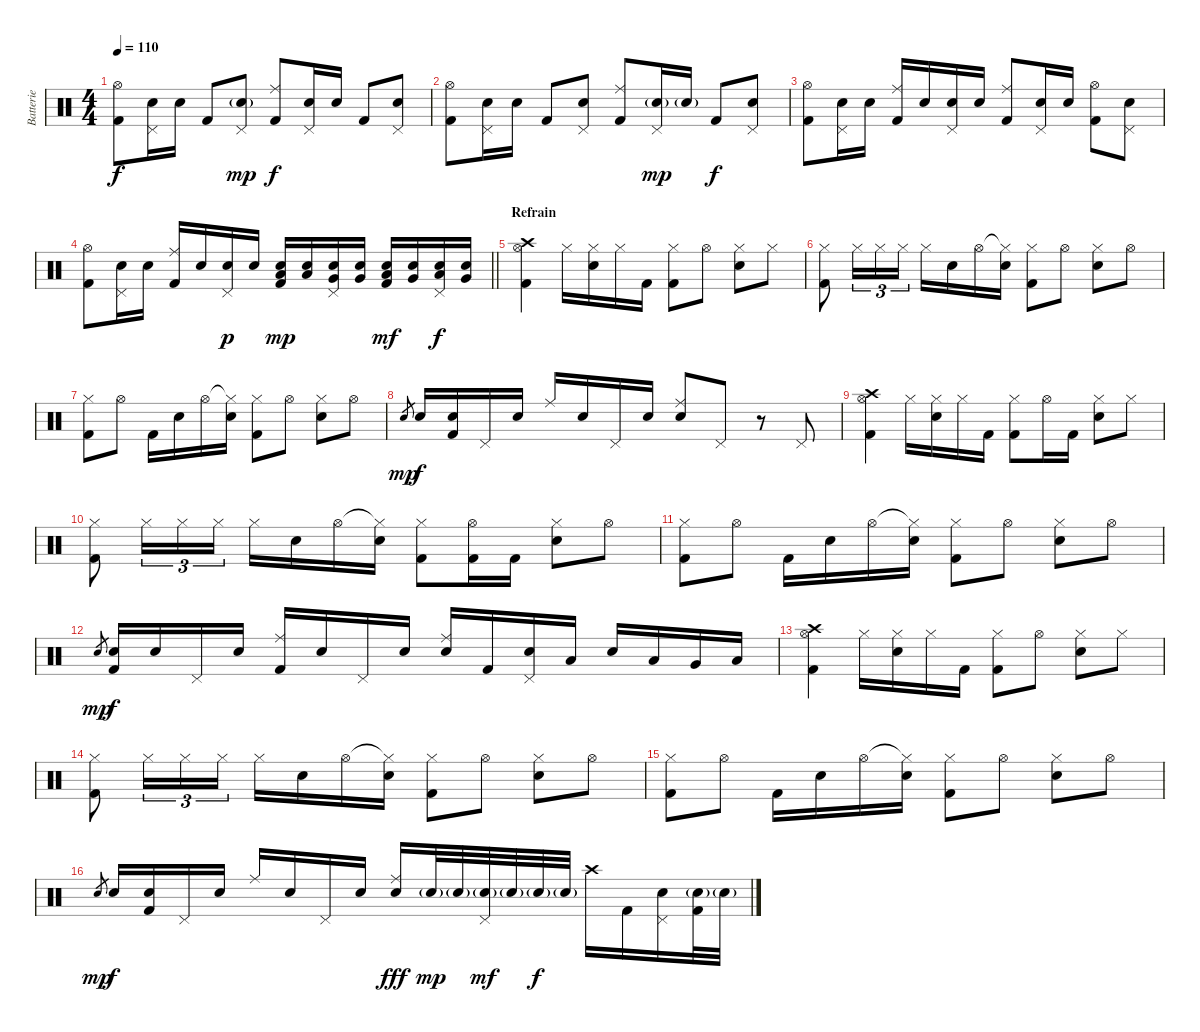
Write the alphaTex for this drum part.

\track ("Batterie" "Batterie") {instrument percussion}
\staff {score}
\articulation defaults
\ts (4 4)
\tempo 110
\clef neutral
\ks c
("Hi-Hat (open)" "Kick (hit) 2").8{dy f} ("Pedal Hi-Hat (hit)" "Snare (hit) 2").16 "Snare (hit) 2".16 "Kick (hit) 2".8 ("Pedal Hi-Hat (hit)" "Snare (hit) 2"{g}).8{dy mp} ("Ride (middle)" "Kick (hit) 2").8{dy f} ("Pedal Hi-Hat (hit)" "Snare (hit) 2").16 "Snare (hit) 2".16 "Kick (hit) 2".8 ("Pedal Hi-Hat (hit)" "Snare (hit) 2").8 |
("Hi-Hat (open)" "Kick (hit) 2").8 ("Pedal Hi-Hat (hit)" "Snare (hit) 2").16 "Snare (hit) 2".16 "Kick (hit) 2".8 ("Pedal Hi-Hat (hit)" "Snare (hit) 2").8 ("Ride (middle)" "Kick (hit) 2").8 ("Pedal Hi-Hat (hit)" "Snare (hit) 2"{g}).16{dy mp} "Snare (hit) 2"{g}.16 "Kick (hit) 2".8{dy f} ("Pedal Hi-Hat (hit)" "Snare (hit) 2").8 |
("Hi-Hat (open)" "Kick (hit) 2").8 ("Pedal Hi-Hat (hit)" "Snare (hit) 2").16 "Snare (hit) 2".16 ("Ride (middle)" "Kick (hit) 2").16 "Snare (hit) 2".16 ("Pedal Hi-Hat (hit)" "Snare (hit) 2").16 "Snare (hit) 2".16 ("Ride (middle)" "Kick (hit) 2").8 ("Pedal Hi-Hat (hit)" "Snare (hit) 2").16 "Snare (hit) 2".16 ("Hi-Hat (open)" "Kick (hit) 2").8 ("Pedal Hi-Hat (hit)" "Snare (hit) 2").8 |
\barLineRight lightlight
("Hi-Hat (open)" "Kick (hit) 2").8 ("Pedal Hi-Hat (hit)" "Snare (hit) 2").16 "Snare (hit) 2".16 ("Ride (middle)" "Kick (hit) 2").16 "Snare (hit) 2".16 ("Pedal Hi-Hat (hit)" "Snare (hit) 2").16{dy p} "Snare (hit) 2".16 ("Snare (hit) 2" "Low Tom (hit)" "Kick (hit) 2").16{dy mp} ("Snare (hit) 2" "Low Tom (hit)").16 ("Pedal Hi-Hat (hit)" "Snare (hit) 2" "Very Low Tom (hit)").16 ("Snare (hit) 2" "Very Low Tom (hit)").16 ("Snare (hit) 2" "Low Tom (hit)" "Kick (hit) 2").16{dy mf} ("Snare (hit) 2" "Very Low Tom (hit)").16 ("Pedal Hi-Hat (hit)" "Snare (hit) 2" "Low Tom (hit)").16{dy f} ("Snare (hit) 2" "Very Low Tom (hit)").16 |
\section ("" "Refrain")
("Crash high (hit)" "Hi-Hat (open)" "Kick (hit) 2").4 "Hi-Hat (closed)".16 ("Hi-Hat (closed)" "Snare (hit) 2").16 "Hi-Hat (closed)".16 "Kick (hit) 2".16 ("Hi-Hat (closed)" "Kick (hit) 2").8 "Hi-Hat (open)".8 ("Hi-Hat (closed)" "Snare (hit) 2").8 "Hi-Hat (closed)".8 |
("Hi-Hat (closed)" "Kick (hit) 2").8 "Hi-Hat (closed)".16{tu (3 2)} "Hi-Hat (closed)".16{tu (3 2)} "Hi-Hat (closed)".16{tu (3 2)} "Hi-Hat (closed)".16 "Snare (hit) 2".16 "Hi-Hat (open)".16 ("Hi-Hat (closed)"{t} "Snare (hit) 2").16 ("Hi-Hat (closed)" "Kick (hit) 2").8 "Hi-Hat (open)".8 ("Hi-Hat (closed)" "Snare (hit) 2").8 "Hi-Hat (open)".8 |
("Hi-Hat (closed)" "Kick (hit) 2").8 "Hi-Hat (open)".8 "Kick (hit) 2".16 "Snare (hit) 2".16 "Hi-Hat (open)".16 ("Hi-Hat (closed)"{t} "Snare (hit) 2").16 ("Hi-Hat (closed)" "Kick (hit) 2").8 "Hi-Hat (open)".8 ("Hi-Hat (closed)" "Snare (hit) 2").8 "Hi-Hat (open)".8 |
"Snare (hit) 2".8{gr dy mp} "Snare (hit) 2".16{dy f} ("Snare (hit) 2" "Kick (hit) 2").16 "Pedal Hi-Hat (hit)".16 "Snare (hit) 2".16 "Ride (middle)".16 "Snare (hit) 2".16 "Pedal Hi-Hat (hit)".16 "Snare (hit) 2".16 ("Ride (middle)" "Snare (hit) 2").8 "Pedal Hi-Hat (hit)".8 r.8 "Pedal Hi-Hat (hit)".8 |
("Crash high (hit)" "Hi-Hat (open)" "Kick (hit) 2").4 "Hi-Hat (closed)".16 ("Hi-Hat (closed)" "Snare (hit) 2").16 "Hi-Hat (closed)".16 "Kick (hit) 2".16 ("Hi-Hat (closed)" "Kick (hit) 2").8 "Hi-Hat (open)".16 "Kick (hit) 2".16 ("Hi-Hat (closed)" "Snare (hit) 2").8 "Hi-Hat (closed)".8 |
("Hi-Hat (closed)" "Kick (hit) 2").8 "Hi-Hat (closed)".16{tu (3 2)} "Hi-Hat (closed)".16{tu (3 2)} "Hi-Hat (closed)".16{tu (3 2)} "Hi-Hat (closed)".16 "Snare (hit) 2".16 "Hi-Hat (open)".16 ("Hi-Hat (closed)"{t} "Snare (hit) 2").16 ("Hi-Hat (closed)" "Kick (hit) 2").8 ("Hi-Hat (open)" "Kick (hit) 2").16 "Kick (hit) 2".16 ("Hi-Hat (closed)" "Snare (hit) 2").8 "Hi-Hat (open)".8 |
("Hi-Hat (closed)" "Kick (hit) 2").8 "Hi-Hat (open)".8 "Kick (hit) 2".16 "Snare (hit) 2".16 "Hi-Hat (open)".16 ("Hi-Hat (closed)"{t} "Snare (hit) 2").16 ("Hi-Hat (closed)" "Kick (hit) 2").8 "Hi-Hat (open)".8 ("Hi-Hat (closed)" "Snare (hit) 2").8 "Hi-Hat (open)".8 |
"Snare (hit) 2".8{gr dy mp} ("Snare (hit) 2" "Kick (hit) 2").16{dy f} "Snare (hit) 2".16 "Pedal Hi-Hat (hit)".16 "Snare (hit) 2".16 ("Ride (middle)" "Kick (hit) 2").16 "Snare (hit) 2".16 "Pedal Hi-Hat (hit)".16 "Snare (hit) 2".16 ("Ride (middle)" "Snare (hit) 2").16 "Kick (hit) 2".16 ("Pedal Hi-Hat (hit)" "Snare (hit) 2").16 "Low Tom (hit)".16 "Snare (hit) 2".16 "Low Tom (hit)".16 "Very Low Tom (hit)".16 "Low Floor Tom (hit)".16 |
("Crash high (hit)" "Hi-Hat (open)" "Kick (hit) 2").4 "Hi-Hat (closed)".16 ("Hi-Hat (closed)" "Snare (hit) 2").16 "Hi-Hat (closed)".16 "Kick (hit) 2".16 ("Hi-Hat (closed)" "Kick (hit) 2").8 "Hi-Hat (open)".8 ("Hi-Hat (closed)" "Snare (hit) 2").8 "Hi-Hat (closed)".8 |
("Hi-Hat (closed)" "Kick (hit) 2").8 "Hi-Hat (closed)".16{tu (3 2)} "Hi-Hat (closed)".16{tu (3 2)} "Hi-Hat (closed)".16{tu (3 2)} "Hi-Hat (closed)".16 "Snare (hit) 2".16 "Hi-Hat (open)".16 ("Hi-Hat (closed)"{t} "Snare (hit) 2").16 ("Hi-Hat (closed)" "Kick (hit) 2").8 "Hi-Hat (open)".8 ("Hi-Hat (closed)" "Snare (hit) 2").8 "Hi-Hat (open)".8 |
("Hi-Hat (closed)" "Kick (hit) 2").8 "Hi-Hat (open)".8 "Kick (hit) 2".16 "Snare (hit) 2".16 "Hi-Hat (open)".16 ("Hi-Hat (closed)"{t} "Snare (hit) 2").16 ("Hi-Hat (closed)" "Kick (hit) 2").8 "Hi-Hat (open)".8 ("Hi-Hat (closed)" "Snare (hit) 2").8 "Hi-Hat (open)".8 |
"Snare (hit) 2".8{gr dy mp} "Snare (hit) 2".16{dy f} ("Snare (hit) 2" "Kick (hit) 2").16 "Pedal Hi-Hat (hit)".16 "Snare (hit) 2".16 "Ride (middle)".16 "Snare (hit) 2".16 "Pedal Hi-Hat (hit)".16 "Snare (hit) 2".16 ("Ride (middle)" "Snare (hit) 2").16{dy fff} "Snare (hit) 2"{g}.32{dy mp} "Snare (hit) 2"{g}.32 ("Pedal Hi-Hat (hit)" "Snare (hit) 2"{g}).32{dy mf} "Snare (hit) 2"{g}.32 "Snare (hit) 2"{g}.32{dy f} "Snare (hit) 2"{g}.32 "Crash high (hit)".16 "Kick (hit) 2".16 ("Pedal Hi-Hat (hit)" "Snare (hit) 2").16 ("Snare (hit) 2"{g} "Kick (hit) 2").32 "Snare (hit) 2"{g}.32
